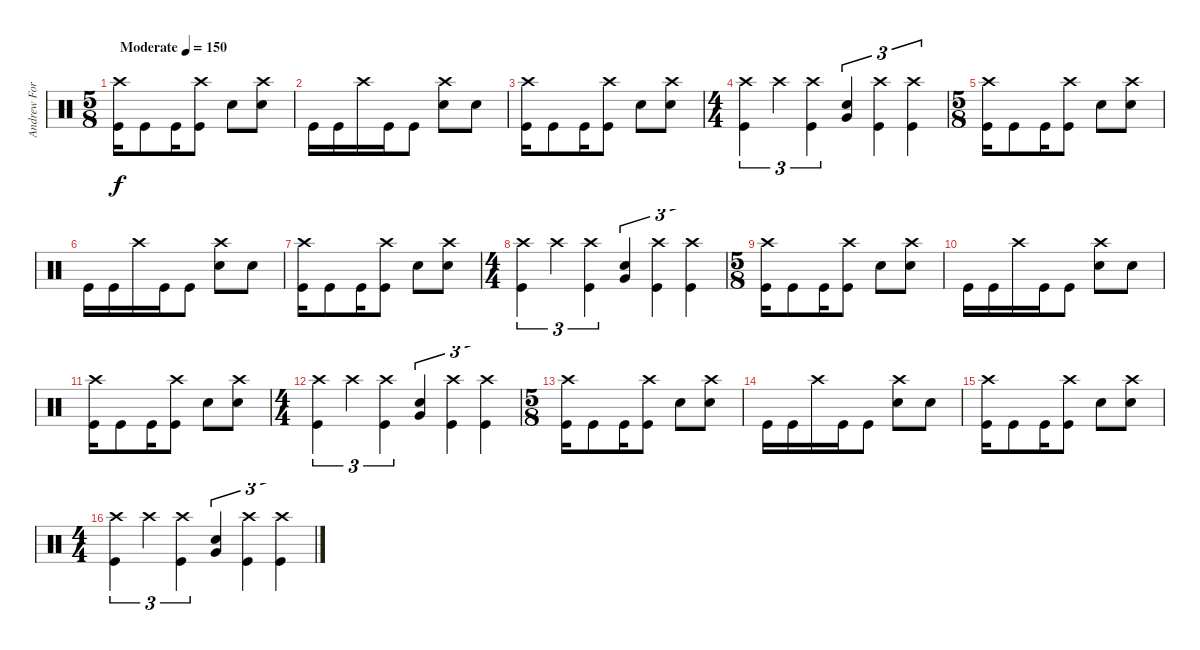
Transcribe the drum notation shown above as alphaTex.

\track ("Andrew Forsman" "Andrew For") {instrument percussion}
\staff {score}
\articulation defaults
\ts (5 8)
\tempo (150 "Moderate")
\clef neutral
\ks c
("Crash high (hit)" "Kick (hit)").16{dy f} "Kick (hit)".8 "Kick (hit)".16 ("Crash high (hit)" "Kick (hit)").8 "Snare (hit) 2".8 ("Crash high (hit)" "Snare (hit) 2").8 |
"Kick (hit)".16 "Kick (hit)".16 "Crash high (hit)".16 "Kick (hit)".16 "Kick (hit)".8 ("Crash high (hit)" "Snare (hit) 2").8 "Snare (hit) 2".8 |
("Crash high (hit)" "Kick (hit)").16 "Kick (hit)".8 "Kick (hit)".16 ("Crash high (hit)" "Kick (hit)").8 "Snare (hit) 2".8 ("Crash high (hit)" "Snare (hit) 2").8 |
\ts (4 4)
("Crash high (hit)" "Kick (hit)").4{tu (3 2)} "Crash high (hit)".4{tu (3 2)} ("Crash high (hit)" "Kick (hit)").4{tu (3 2)} ("Snare (hit) 2" "Very Low Tom (hit)").4{tu (3 2)} ("Crash high (hit)" "Kick (hit)").4{tu (3 2)} ("Crash high (hit)" "Kick (hit)").4{tu (3 2)} |
\ts (5 8)
("Crash high (hit)" "Kick (hit)").16 "Kick (hit)".8 "Kick (hit)".16 ("Crash high (hit)" "Kick (hit)").8 "Snare (hit) 2".8 ("Crash high (hit)" "Snare (hit) 2").8 |
"Kick (hit)".16 "Kick (hit)".16 "Crash high (hit)".16 "Kick (hit)".16 "Kick (hit)".8 ("Crash high (hit)" "Snare (hit) 2").8 "Snare (hit) 2".8 |
("Crash high (hit)" "Kick (hit)").16 "Kick (hit)".8 "Kick (hit)".16 ("Crash high (hit)" "Kick (hit)").8 "Snare (hit) 2".8 ("Crash high (hit)" "Snare (hit) 2").8 |
\ts (4 4)
("Crash high (hit)" "Kick (hit)").4{tu (3 2)} "Crash high (hit)".4{tu (3 2)} ("Crash high (hit)" "Kick (hit)").4{tu (3 2)} ("Snare (hit) 2" "Very Low Tom (hit)").4{tu (3 2)} ("Crash high (hit)" "Kick (hit)").4{tu (3 2)} ("Crash high (hit)" "Kick (hit)").4{tu (3 2)} |
\ts (5 8)
("Crash high (hit)" "Kick (hit)").16 "Kick (hit)".8 "Kick (hit)".16 ("Crash high (hit)" "Kick (hit)").8 "Snare (hit) 2".8 ("Crash high (hit)" "Snare (hit) 2").8 |
"Kick (hit)".16 "Kick (hit)".16 "Crash high (hit)".16 "Kick (hit)".16 "Kick (hit)".8 ("Crash high (hit)" "Snare (hit) 2").8 "Snare (hit) 2".8 |
("Crash high (hit)" "Kick (hit)").16 "Kick (hit)".8 "Kick (hit)".16 ("Crash high (hit)" "Kick (hit)").8 "Snare (hit) 2".8 ("Crash high (hit)" "Snare (hit) 2").8 |
\ts (4 4)
("Crash high (hit)" "Kick (hit)").4{tu (3 2)} "Crash high (hit)".4{tu (3 2)} ("Crash high (hit)" "Kick (hit)").4{tu (3 2)} ("Snare (hit) 2" "Very Low Tom (hit)").4{tu (3 2)} ("Crash high (hit)" "Kick (hit)").4{tu (3 2)} ("Crash high (hit)" "Kick (hit)").4{tu (3 2)} |
\ts (5 8)
("Crash high (hit)" "Kick (hit)").16 "Kick (hit)".8 "Kick (hit)".16 ("Crash high (hit)" "Kick (hit)").8 "Snare (hit) 2".8 ("Crash high (hit)" "Snare (hit) 2").8 |
"Kick (hit)".16 "Kick (hit)".16 "Crash high (hit)".16 "Kick (hit)".16 "Kick (hit)".8 ("Crash high (hit)" "Snare (hit) 2").8 "Snare (hit) 2".8 |
("Crash high (hit)" "Kick (hit)").16 "Kick (hit)".8 "Kick (hit)".16 ("Crash high (hit)" "Kick (hit)").8 "Snare (hit) 2".8 ("Crash high (hit)" "Snare (hit) 2").8 |
\ts (4 4)
("Crash high (hit)" "Kick (hit)").4{tu (3 2)} "Crash high (hit)".4{tu (3 2)} ("Crash high (hit)" "Kick (hit)").4{tu (3 2)} ("Snare (hit) 2" "Very Low Tom (hit)").4{tu (3 2)} ("Crash high (hit)" "Kick (hit)").4{tu (3 2)} ("Crash high (hit)" "Kick (hit)").4{tu (3 2)}
